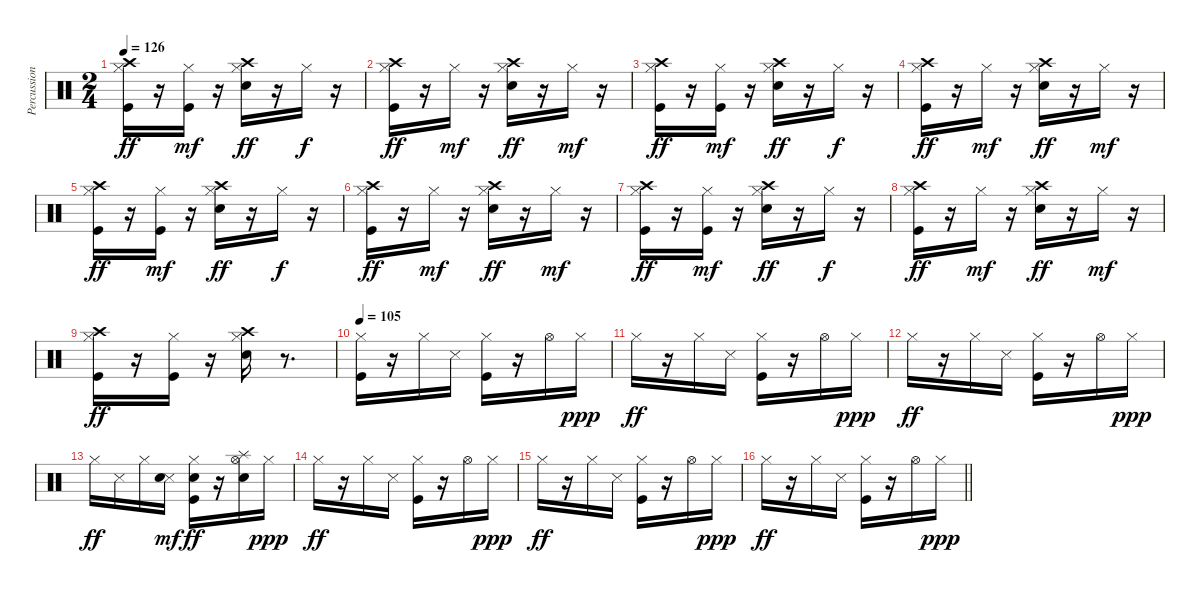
\track ("Percussion" "Percussion") {instrument percussion}
\staff {score}
\articulation defaults
\ts (2 4)
\tempo 126
\clef neutral
\ks c
("Kick (hit)" "Hi-Hat (closed)" "Crash high (hit)").16{dy ff} r.16 ("Kick (hit)" "Hi-Hat (closed)").16{dy mf} r.16 ("Snare (hit) 2" "Hi-Hat (closed)" "Crash high (hit)").16{dy ff} r.16 "Hi-Hat (closed)".16{dy f} r.16 |
("Kick (hit)" "Hi-Hat (closed)" "Crash high (hit)").16{dy ff} r.16 "Hi-Hat (closed)".16{dy mf} r.16 ("Snare (hit) 2" "Hi-Hat (closed)" "Crash high (hit)").16{dy ff} r.16 "Hi-Hat (closed)".16{dy mf} r.16 |
("Kick (hit)" "Hi-Hat (closed)" "Crash high (hit)").16{dy ff} r.16 ("Kick (hit)" "Hi-Hat (closed)").16{dy mf} r.16 ("Snare (hit) 2" "Hi-Hat (closed)" "Crash high (hit)").16{dy ff} r.16 "Hi-Hat (closed)".16{dy f} r.16 |
("Kick (hit)" "Hi-Hat (closed)" "Crash high (hit)").16{dy ff} r.16 "Hi-Hat (closed)".16{dy mf} r.16 ("Snare (hit) 2" "Hi-Hat (closed)" "Crash high (hit)").16{dy ff} r.16 "Hi-Hat (closed)".16{dy mf} r.16 |
("Kick (hit)" "Hi-Hat (closed)" "Crash high (hit)").16{dy ff} r.16 ("Kick (hit)" "Hi-Hat (closed)").16{dy mf} r.16 ("Snare (hit) 2" "Hi-Hat (closed)" "Crash high (hit)").16{dy ff} r.16 "Hi-Hat (closed)".16{dy f} r.16 |
("Kick (hit)" "Hi-Hat (closed)" "Crash high (hit)").16{dy ff} r.16 "Hi-Hat (closed)".16{dy mf} r.16 ("Snare (hit) 2" "Hi-Hat (closed)" "Crash high (hit)").16{dy ff} r.16 "Hi-Hat (closed)".16{dy mf} r.16 |
("Kick (hit)" "Hi-Hat (closed)" "Crash high (hit)").16{dy ff} r.16 ("Kick (hit)" "Hi-Hat (closed)").16{dy mf} r.16 ("Snare (hit) 2" "Hi-Hat (closed)" "Crash high (hit)").16{dy ff} r.16 "Hi-Hat (closed)".16{dy f} r.16 |
("Kick (hit)" "Hi-Hat (closed)" "Crash high (hit)").16{dy ff} r.16 "Hi-Hat (closed)".16{dy mf} r.16 ("Snare (hit) 2" "Hi-Hat (closed)" "Crash high (hit)").16{dy ff} r.16 "Hi-Hat (closed)".16{dy mf} r.16 |
("Kick (hit)" "Hi-Hat (closed)" "Crash high (hit)").16{dy ff} r.16 ("Kick (hit)" "Hi-Hat (closed)").16 r.16 ("Snare (hit) 2" "Hi-Hat (closed)" "Crash high (hit)").16 r.8{d} |
\tempo 105
("Kick (hit)" "Hi-Hat (closed)").16 r.16 "Hi-Hat (closed)".16 "Snare (side stick) 3".16 ("Kick (hit)" "Hi-Hat (closed)").16 r.16 "Hi-Hat (open)".16 "Hi-Hat (closed)".16{dy ppp} |
"Hi-Hat (closed)".16{dy ff} r.16 "Hi-Hat (closed)".16 "Snare (side stick) 3".16 ("Kick (hit)" "Hi-Hat (closed)").16 r.16 "Hi-Hat (open)".16 "Hi-Hat (closed)".16{dy ppp} |
"Hi-Hat (closed)".16{dy ff} r.16 "Hi-Hat (closed)".16 "Snare (side stick) 3".16 ("Kick (hit)" "Hi-Hat (closed)").16 r.16 "Hi-Hat (open)".16 "Hi-Hat (closed)".16{dy ppp} |
"Hi-Hat (closed)".16{dy ff} "Snare (side stick) 3".16 "Hi-Hat (closed)".16 ("Snare (side stick) 3" "Electric Snare (hit)").16{dy mf} ("Kick (hit)" "Hi-Hat (closed)" "Snare (hit) 2").16{dy ff} r.16 ("Hi-Hat (open)" "Splash (hit)" "Electric Snare (hit)").16 "Hi-Hat (closed)".16{dy ppp} |
"Hi-Hat (closed)".16{dy ff} r.16 "Hi-Hat (closed)".16 "Snare (side stick) 3".16 ("Kick (hit)" "Hi-Hat (closed)").16 r.16 "Hi-Hat (open)".16 "Hi-Hat (closed)".16{dy ppp} |
"Hi-Hat (closed)".16{dy ff} r.16 "Hi-Hat (closed)".16 "Snare (side stick) 3".16 ("Kick (hit)" "Hi-Hat (closed)").16 r.16 "Hi-Hat (open)".16 "Hi-Hat (closed)".16{dy ppp} |
\barLineRight lightlight "Hi-Hat (closed)".16{dy ff}
r.16 "Hi-Hat (closed)".16 "Snare (side stick) 3".16 ("Kick (hit)" "Hi-Hat (closed)").16 r.16 "Hi-Hat (open)".16 "Hi-Hat (closed)".16{dy ppp}
